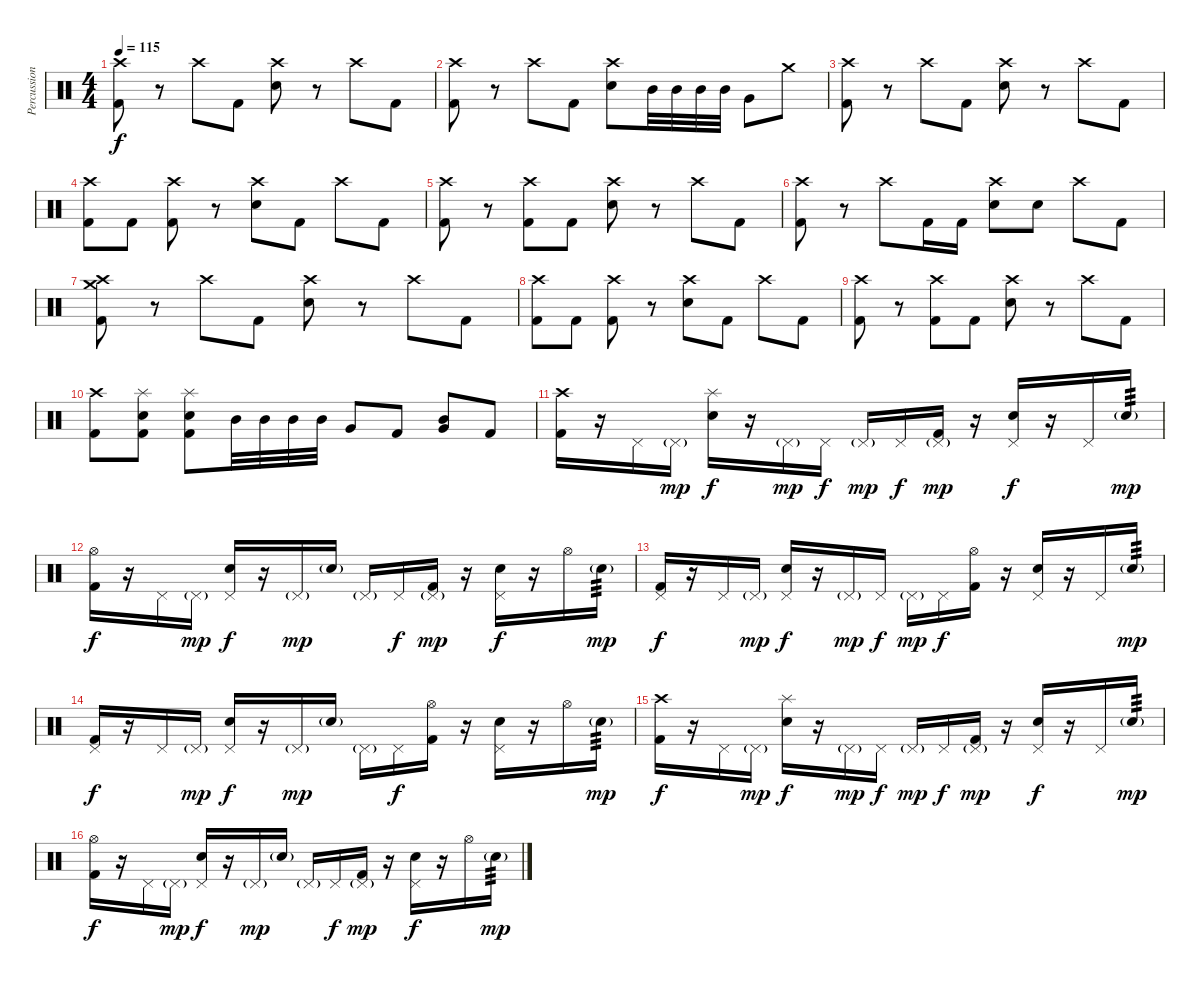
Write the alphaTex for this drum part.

\track ("Percussion" "Percussion") {instrument percussion}
\staff {score}
\articulation defaults
\ts (4 4)
\tempo 115
\clef neutral
\ks c
("Kick (hit) 2" "Crash high (hit)").8{dy f} r.8 "Crash high (hit)".8 "Kick (hit) 2".8 ("Electric Snare (hit)" "Crash high (hit)").8 r.8 "Crash high (hit)".8 "Kick (hit) 2".8 |
("Kick (hit) 2" "Crash high (hit)").8 r.8 "Crash high (hit)".8 "Kick (hit) 2".8 ("Electric Snare (hit)" "Crash high (hit)").8 "Mid Tom (hit)".32 "Mid Tom (hit)".32 "Mid Tom (hit)".32 "Mid Tom (hit)".32 "Very Low Tom (hit)".8 "Crash medium (hit)".8 |
("Kick (hit) 2" "Crash high (hit)").8 r.8 "Crash high (hit)".8 "Kick (hit) 2".8 ("Electric Snare (hit)" "Crash high (hit)").8 r.8 "Crash high (hit)".8 "Kick (hit) 2".8 |
("Kick (hit) 2" "Crash high (hit)").8 "Kick (hit) 2".8 ("Kick (hit) 2" "Crash high (hit)").8 r.8 ("Electric Snare (hit)" "Crash high (hit)").8 "Kick (hit) 2".8 "Crash high (hit)".8 "Kick (hit) 2".8 |
("Kick (hit) 2" "Crash high (hit)").8 r.8 ("Kick (hit) 2" "Crash high (hit)").8 "Kick (hit) 2".8 ("Electric Snare (hit)" "Crash high (hit)").8 r.8 "Crash high (hit)".8 "Kick (hit) 2".8 |
("Kick (hit) 2" "Crash high (hit)").8 r.8 "Crash high (hit)".8 "Kick (hit) 2".16 "Kick (hit) 2".16 ("Electric Snare (hit)" "Crash high (hit)").8 "Electric Snare (hit)".8 "Crash high (hit)".8 "Kick (hit) 2".8 |
("Kick (hit) 2" "Crash medium (hit)" "Crash high (hit)").8 r.8 "Crash high (hit)".8 "Kick (hit) 2".8 ("Electric Snare (hit)" "Crash high (hit)").8 r.8 "Crash high (hit)".8 "Kick (hit) 2".8 |
("Kick (hit) 2" "Crash high (hit)").8 "Kick (hit) 2".8 ("Kick (hit) 2" "Crash high (hit)").8 r.8 ("Electric Snare (hit)" "Crash high (hit)").8 "Kick (hit) 2".8 "Crash high (hit)".8 "Kick (hit) 2".8 |
("Kick (hit) 2" "Crash high (hit)").8 r.8 ("Kick (hit) 2" "Crash high (hit)").8 "Kick (hit) 2".8 ("Electric Snare (hit)" "Crash high (hit)").8 r.8 "Crash high (hit)".8 "Kick (hit) 2".8 |
("Kick (hit) 2" "Crash high (hit)").8 ("Kick (hit) 2" "Electric Snare (hit)" "Splash (hit)").8 ("Kick (hit) 2" "Electric Snare (hit)" "Splash (hit)").8 "Mid Tom (hit)".32 "Mid Tom (hit)".32 "Mid Tom (hit)".32 "Mid Tom (hit)".32 "Very Low Tom (hit)".8 "Kick (hit) 2".8 ("Very Low Tom (hit)" "Mid Tom (hit)").8 "Kick (hit) 2".8 |
("Kick (hit) 2" "Crash high (hit)").16 r.16 "Pedal Hi-Hat (hit)".16 "Pedal Hi-Hat (hit)"{g}.16{dy mp} ("Electric Snare (hit)" "Splash (hit)").16{dy f} r.16 "Pedal Hi-Hat (hit)"{g}.16{dy mp} "Pedal Hi-Hat (hit)".16{dy f} "Pedal Hi-Hat (hit)"{g}.16{dy mp} "Pedal Hi-Hat (hit)".16{dy f} ("Kick (hit) 2" "Pedal Hi-Hat (hit)"{g}).16{dy mp} r.16 ("Electric Snare (hit)" "Pedal Hi-Hat (hit)").16{dy f} r.16 "Pedal Hi-Hat (hit)".16 "Electric Snare (hit)"{g}.16{tp 3 dy mp} |
("Kick (hit) 2" "Hi-Hat (open)").16{dy f} r.16 "Pedal Hi-Hat (hit)".16 "Pedal Hi-Hat (hit)"{g}.16{dy mp} ("Electric Snare (hit)" "Pedal Hi-Hat (hit)").16{dy f} r.16 "Pedal Hi-Hat (hit)"{g}.16{dy mp} "Electric Snare (hit)"{g}.16 "Pedal Hi-Hat (hit)"{g}.16 "Pedal Hi-Hat (hit)".16{dy f} ("Kick (hit) 2" "Pedal Hi-Hat (hit)"{g}).16{dy mp} r.16 ("Electric Snare (hit)" "Pedal Hi-Hat (hit)").16{dy f} r.16 "Hi-Hat (open)".16 "Electric Snare (hit)"{g}.16{tp 3 dy mp} |
("Kick (hit) 2" "Pedal Hi-Hat (hit)").16{dy f} r.16 "Pedal Hi-Hat (hit)".16 "Pedal Hi-Hat (hit)"{g}.16{dy mp} ("Electric Snare (hit)" "Pedal Hi-Hat (hit)").16{dy f} r.16 "Pedal Hi-Hat (hit)"{g}.16{dy mp} "Pedal Hi-Hat (hit)".16{dy f} "Pedal Hi-Hat (hit)"{g}.16{dy mp} "Pedal Hi-Hat (hit)".16{dy f} ("Kick (hit) 2" "Hi-Hat (open)").16 r.16 ("Electric Snare (hit)" "Pedal Hi-Hat (hit)").16 r.16 "Pedal Hi-Hat (hit)".16 "Electric Snare (hit)"{g}.16{tp 3 dy mp} |
("Kick (hit) 2" "Pedal Hi-Hat (hit)").16{dy f} r.16 "Pedal Hi-Hat (hit)".16 "Pedal Hi-Hat (hit)"{g}.16{dy mp} ("Electric Snare (hit)" "Pedal Hi-Hat (hit)").16{dy f} r.16 "Pedal Hi-Hat (hit)"{g}.16{dy mp} "Electric Snare (hit)"{g}.16 "Pedal Hi-Hat (hit)"{g}.16 "Pedal Hi-Hat (hit)".16{dy f} ("Kick (hit) 2" "Hi-Hat (open)").16 r.16 ("Electric Snare (hit)" "Pedal Hi-Hat (hit)").16 r.16 "Hi-Hat (open)".16 "Electric Snare (hit)"{g}.16{tp 3 dy mp} |
("Kick (hit) 2" "Crash high (hit)").16{dy f} r.16 "Pedal Hi-Hat (hit)".16 "Pedal Hi-Hat (hit)"{g}.16{dy mp} ("Electric Snare (hit)" "Splash (hit)").16{dy f} r.16 "Pedal Hi-Hat (hit)"{g}.16{dy mp} "Pedal Hi-Hat (hit)".16{dy f} "Pedal Hi-Hat (hit)"{g}.16{dy mp} "Pedal Hi-Hat (hit)".16{dy f} ("Kick (hit) 2" "Pedal Hi-Hat (hit)"{g}).16{dy mp} r.16 ("Electric Snare (hit)" "Pedal Hi-Hat (hit)").16{dy f} r.16 "Pedal Hi-Hat (hit)".16 "Electric Snare (hit)"{g}.16{tp 3 dy mp} |
("Kick (hit) 2" "Hi-Hat (open)").16{dy f} r.16 "Pedal Hi-Hat (hit)".16 "Pedal Hi-Hat (hit)"{g}.16{dy mp} ("Electric Snare (hit)" "Pedal Hi-Hat (hit)").16{dy f} r.16 "Pedal Hi-Hat (hit)"{g}.16{dy mp} "Electric Snare (hit)"{g}.16 "Pedal Hi-Hat (hit)"{g}.16 "Pedal Hi-Hat (hit)".16{dy f} ("Kick (hit) 2" "Pedal Hi-Hat (hit)"{g}).16{dy mp} r.16 ("Electric Snare (hit)" "Pedal Hi-Hat (hit)").16{dy f} r.16 "Hi-Hat (open)".16 "Electric Snare (hit)"{g}.16{tp 3 dy mp}
